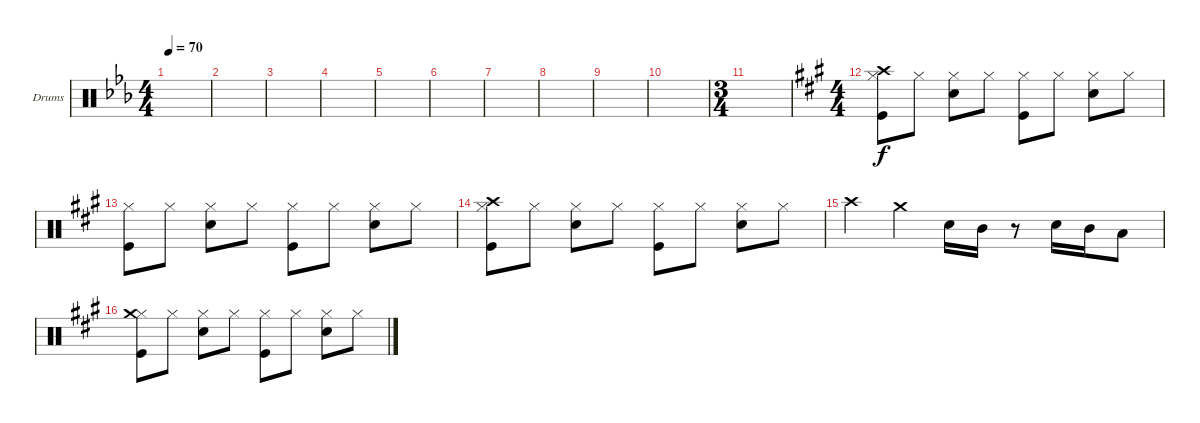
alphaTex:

\defaultSystemsLayout 4
\bracketExtendMode groupsimilarinstruments
\firstSystemTrackNameOrientation horizontal
\otherSystemsTrackNameOrientation horizontal
\track ("Drumkit" "Drums") {instrument percussion}
\staff {score}
\articulation defaults
\ts (4 4)
\tempo 70
\clef neutral
\ks cminor
|
|
|
|
|
|
|
|
|
|
\ts (3 4)
|
\ts (4 4)
\ks f#minor
("Hi-Hat (closed)" "Kick (hit)" "Crash high (hit)").8 "Hi-Hat (closed)".8 ("Hi-Hat (closed)" "Snare (hit) 2").8 "Hi-Hat (closed)".8 ("Hi-Hat (closed)" "Kick (hit)").8 "Hi-Hat (closed)".8 ("Hi-Hat (closed)" "Snare (hit) 2").8 "Hi-Hat (closed)".8 |
("Hi-Hat (closed)" "Kick (hit)").8 "Hi-Hat (closed)".8 ("Hi-Hat (closed)" "Snare (hit) 2").8 "Hi-Hat (closed)".8 ("Hi-Hat (closed)" "Kick (hit)").8 "Hi-Hat (closed)".8 ("Hi-Hat (closed)" "Snare (hit) 2").8 "Hi-Hat (closed)".8 |
("Hi-Hat (closed)" "Kick (hit)" "Crash high (hit)").8 "Hi-Hat (closed)".8 ("Hi-Hat (closed)" "Snare (hit) 2").8 "Hi-Hat (closed)".8 ("Hi-Hat (closed)" "Kick (hit)").8 "Hi-Hat (closed)".8 ("Hi-Hat (closed)" "Snare (hit) 2").8 "Hi-Hat (closed)".8 |
"Crash high (hit)".4 "Crash medium (hit)".4 "Snare (hit) 2".16 "Mid Tom (hit)".16 r.8 "Snare (hit) 2".16 "Mid Tom (hit)".16 "Low Tom (hit)".8 |
("Hi-Hat (closed)" "Kick (hit)" "Crash medium (hit)").8 "Hi-Hat (closed)".8 ("Hi-Hat (closed)" "Snare (hit) 2").8 "Hi-Hat (closed)".8 ("Hi-Hat (closed)" "Kick (hit)").8 "Hi-Hat (closed)".8 ("Hi-Hat (closed)" "Snare (hit) 2").8 "Hi-Hat (closed)".8
